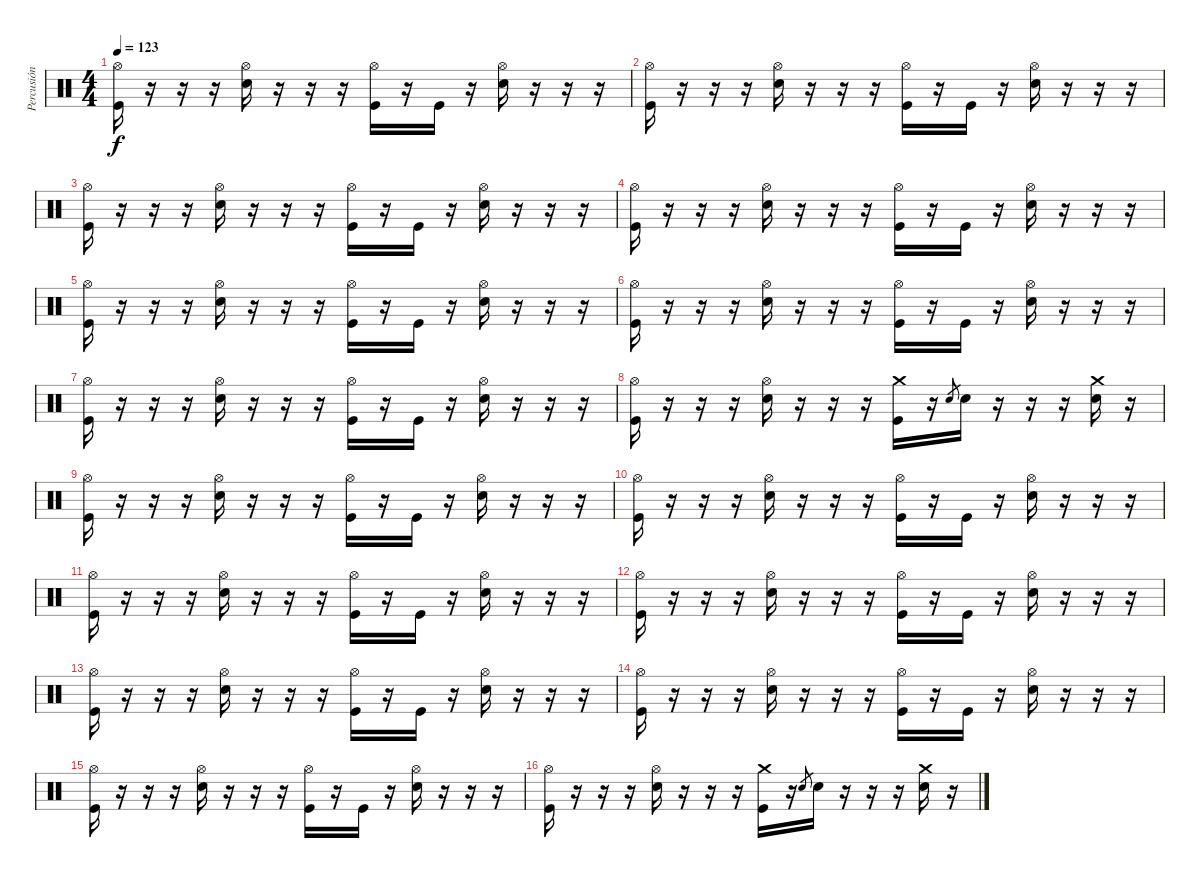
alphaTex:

\track ("Percusión" "Percusión") {instrument percussion}
\staff {score}
\articulation defaults
\ts (4 4)
\tempo 123
\clef neutral
\ks c
("Hi-Hat (open)" "Kick (hit)").16{dy f} r.16 r.16 r.16 ("Hi-Hat (open)" "Snare (hit) 2").16 r.16 r.16 r.16 ("Hi-Hat (open)" "Kick (hit)").16 r.16 "Kick (hit)".16 r.16 ("Hi-Hat (open)" "Snare (hit) 2").16 r.16 r.16 r.16 |
("Hi-Hat (open)" "Kick (hit)").16 r.16 r.16 r.16 ("Hi-Hat (open)" "Snare (hit) 2").16 r.16 r.16 r.16 ("Hi-Hat (open)" "Kick (hit)").16 r.16 "Kick (hit)".16 r.16 ("Hi-Hat (open)" "Snare (hit) 2").16 r.16 r.16 r.16 |
("Hi-Hat (open)" "Kick (hit)").16 r.16 r.16 r.16 ("Hi-Hat (open)" "Snare (hit) 2").16 r.16 r.16 r.16 ("Hi-Hat (open)" "Kick (hit)").16 r.16 "Kick (hit)".16 r.16 ("Hi-Hat (open)" "Snare (hit) 2").16 r.16 r.16 r.16 |
("Hi-Hat (open)" "Kick (hit)").16 r.16 r.16 r.16 ("Hi-Hat (open)" "Snare (hit) 2").16 r.16 r.16 r.16 ("Hi-Hat (open)" "Kick (hit)").16 r.16 "Kick (hit)".16 r.16 ("Hi-Hat (open)" "Snare (hit) 2").16 r.16 r.16 r.16 |
("Hi-Hat (open)" "Kick (hit)").16 r.16 r.16 r.16 ("Hi-Hat (open)" "Snare (hit) 2").16 r.16 r.16 r.16 ("Hi-Hat (open)" "Kick (hit)").16 r.16 "Kick (hit)".16 r.16 ("Hi-Hat (open)" "Snare (hit) 2").16 r.16 r.16 r.16 |
("Hi-Hat (open)" "Kick (hit)").16 r.16 r.16 r.16 ("Hi-Hat (open)" "Snare (hit) 2").16 r.16 r.16 r.16 ("Hi-Hat (open)" "Kick (hit)").16 r.16 "Kick (hit)".16 r.16 ("Hi-Hat (open)" "Snare (hit) 2").16 r.16 r.16 r.16 |
("Hi-Hat (open)" "Kick (hit)").16 r.16 r.16 r.16 ("Hi-Hat (open)" "Snare (hit) 2").16 r.16 r.16 r.16 ("Hi-Hat (open)" "Kick (hit)").16 r.16 "Kick (hit)".16 r.16 ("Hi-Hat (open)" "Snare (hit) 2").16 r.16 r.16 r.16 |
("Hi-Hat (open)" "Kick (hit)").16 r.16 r.16 r.16 ("Hi-Hat (open)" "Snare (hit) 2").16 r.16 r.16 r.16 ("Crash medium (hit)" "Kick (hit)").16 r.16 "Snare (hit) 2".8{gr} "Snare (hit) 2".16 r.16 r.16 r.16 ("Crash medium (hit)" "Snare (hit) 2").16 r.16 |
("Hi-Hat (open)" "Kick (hit)").16 r.16 r.16 r.16 ("Hi-Hat (open)" "Snare (hit) 2").16 r.16 r.16 r.16 ("Hi-Hat (open)" "Kick (hit)").16 r.16 "Kick (hit)".16 r.16 ("Hi-Hat (open)" "Snare (hit) 2").16 r.16 r.16 r.16 |
("Hi-Hat (open)" "Kick (hit)").16 r.16 r.16 r.16 ("Hi-Hat (open)" "Snare (hit) 2").16 r.16 r.16 r.16 ("Hi-Hat (open)" "Kick (hit)").16 r.16 "Kick (hit)".16 r.16 ("Hi-Hat (open)" "Snare (hit) 2").16 r.16 r.16 r.16 |
("Hi-Hat (open)" "Kick (hit)").16 r.16 r.16 r.16 ("Hi-Hat (open)" "Snare (hit) 2").16 r.16 r.16 r.16 ("Hi-Hat (open)" "Kick (hit)").16 r.16 "Kick (hit)".16 r.16 ("Hi-Hat (open)" "Snare (hit) 2").16 r.16 r.16 r.16 |
("Hi-Hat (open)" "Kick (hit)").16 r.16 r.16 r.16 ("Hi-Hat (open)" "Snare (hit) 2").16 r.16 r.16 r.16 ("Hi-Hat (open)" "Kick (hit)").16 r.16 "Kick (hit)".16 r.16 ("Hi-Hat (open)" "Snare (hit) 2").16 r.16 r.16 r.16 |
("Hi-Hat (open)" "Kick (hit)").16 r.16 r.16 r.16 ("Hi-Hat (open)" "Snare (hit) 2").16 r.16 r.16 r.16 ("Hi-Hat (open)" "Kick (hit)").16 r.16 "Kick (hit)".16 r.16 ("Hi-Hat (open)" "Snare (hit) 2").16 r.16 r.16 r.16 |
("Hi-Hat (open)" "Kick (hit)").16 r.16 r.16 r.16 ("Hi-Hat (open)" "Snare (hit) 2").16 r.16 r.16 r.16 ("Hi-Hat (open)" "Kick (hit)").16 r.16 "Kick (hit)".16 r.16 ("Hi-Hat (open)" "Snare (hit) 2").16 r.16 r.16 r.16 |
("Hi-Hat (open)" "Kick (hit)").16 r.16 r.16 r.16 ("Hi-Hat (open)" "Snare (hit) 2").16 r.16 r.16 r.16 ("Hi-Hat (open)" "Kick (hit)").16 r.16 "Kick (hit)".16 r.16 ("Hi-Hat (open)" "Snare (hit) 2").16 r.16 r.16 r.16 |
("Hi-Hat (open)" "Kick (hit)").16 r.16 r.16 r.16 ("Hi-Hat (open)" "Snare (hit) 2").16 r.16 r.16 r.16 ("Crash medium (hit)" "Kick (hit)").16 r.16 "Snare (hit) 2".8{gr} "Snare (hit) 2".16 r.16 r.16 r.16 ("Crash medium (hit)" "Snare (hit) 2").16 r.16
